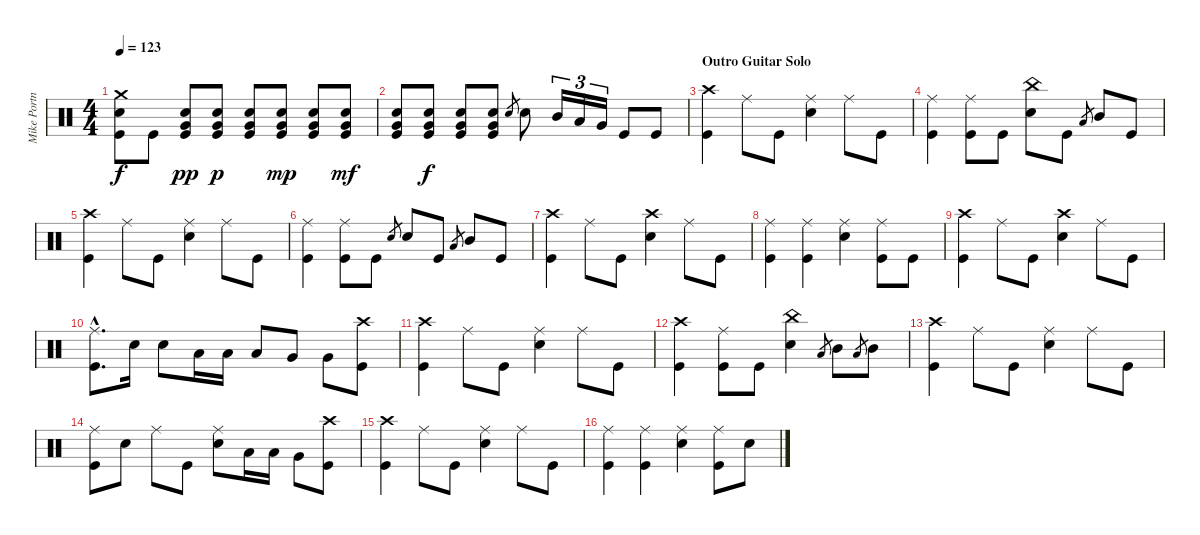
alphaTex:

\track ("Mike Portnoy" "Mike Portn") {instrument percussion}
\staff {score}
\articulation defaults
\ts (4 4)
\tempo 123
\clef neutral
\ks c
("Crash medium (hit)" "Electric Snare (hit)" "Kick (hit)").8{dy f} "Kick (hit)".8 ("Very Low Tom (hit)" "Electric Snare (hit)" "Kick (hit)").8{dy pp} ("Very Low Tom (hit)" "Electric Snare (hit)" "Kick (hit)").8{dy p} ("Very Low Tom (hit)" "Electric Snare (hit)" "Kick (hit)").8 ("Very Low Tom (hit)" "Electric Snare (hit)" "Kick (hit)").8{dy mp} ("Very Low Tom (hit)" "Electric Snare (hit)" "Kick (hit)").8 ("Very Low Tom (hit)" "Electric Snare (hit)" "Kick (hit)").8{dy mf} |
("Very Low Tom (hit)" "Electric Snare (hit)" "Kick (hit)").8 ("Very Low Tom (hit)" "Electric Snare (hit)" "Kick (hit)").8{dy f} ("Very Low Tom (hit)" "Electric Snare (hit)" "Kick (hit)").8 ("Very Low Tom (hit)" "Electric Snare (hit)" "Kick (hit)").8 "Electric Snare (hit)".8{gr} "Electric Snare (hit)".8 "Mid Tom (hit)".16{tu (3 2)} "Low Tom (hit)".16{tu (3 2)} "Very Low Tom (hit)".16{tu (3 2)} "Kick (hit)".8 "Kick (hit)".8 |
\section ("" "Outro Guitar Solo")
("Crash high (hit)" "Kick (hit)").4 "Ride (middle)".8 "Kick (hit)".8 ("Ride (middle)" "Electric Snare (hit)").4 "Ride (middle)".8 "Kick (hit)".8 |
("Ride (middle)" "Kick (hit)").4 ("Ride (middle)" "Kick (hit)").8 "Kick (hit)".8 ("China (hit)" "Electric Snare (hit)").8 "Kick (hit)".8 "Low Tom (hit)".8{gr} "Mid Tom (hit)".8 "Kick (hit)".8 |
("Crash high (hit)" "Kick (hit)").4 "Ride (middle)".8 "Kick (hit)".8 ("Ride (middle)" "Electric Snare (hit)").4 "Ride (middle)".8 "Kick (hit)".8 |
("Ride (middle)" "Kick (hit)").4 ("Ride (middle)" "Kick (hit)").8 "Kick (hit)".8 "Electric Snare (hit)".8{gr} "Electric Snare (hit)".8 "Kick (hit)".8 "Low Tom (hit)".8{gr} "Mid Tom (hit)".8 "Kick (hit)".8 |
("Crash high (hit)" "Kick (hit)").4 "Ride (middle)".8 "Kick (hit)".8 ("Crash high (hit)" "Electric Snare (hit)").4 "Ride (middle)".8 "Kick (hit)".8 |
("Ride (middle)" "Kick (hit)").4 ("Ride (middle)" "Kick (hit)").4 ("Ride (middle)" "Electric Snare (hit)").4 ("Ride (middle)" "Kick (hit)").8 "Kick (hit)".8 |
("Crash high (hit)" "Kick (hit)").4 "Ride (middle)".8 "Kick (hit)".8 ("Crash high (hit)" "Electric Snare (hit)").4 "Ride (middle)".8 "Kick (hit)".8 |
("Ride (middle)"{hac} "Kick (hit)"{hac}).8{d} "Electric Snare (hit)".16 "Electric Snare (hit)".8 "Low Tom (hit)".16 "Low Tom (hit)".16 "Low Tom (hit)".8 "Very Low Tom (hit)".8 "Very Low Tom (hit)".8 ("Crash high (hit)" "Kick (hit)").8 |
("Crash high (hit)" "Kick (hit)").4 "Ride (middle)".8 "Kick (hit)".8 ("Ride (middle)" "Electric Snare (hit)").4 "Ride (middle)".8 "Kick (hit)".8 |
("Crash high (hit)" "Kick (hit)").4 ("Ride (middle)" "Kick (hit)").8 "Kick (hit)".8 ("China (hit)" "Electric Snare (hit)").4 "Low Tom (hit)".8{gr} "Mid Tom (hit)".8 "Low Tom (hit)".8{gr} "Mid Tom (hit)".8 |
("Crash high (hit)" "Kick (hit)").4 "Ride (middle)".8 "Kick (hit)".8 ("Ride (middle)" "Electric Snare (hit)").4 "Ride (middle)".8 "Kick (hit)".8 |
("Ride (middle)" "Kick (hit)").8 "Electric Snare (hit)".8 "Ride (middle)".8 "Kick (hit)".8 ("Ride (middle)" "Electric Snare (hit)").8 "Low Tom (hit)".16 "Low Tom (hit)".16 "Very Low Tom (hit)".8 ("Crash high (hit)" "Kick (hit)").8 |
("Crash high (hit)" "Kick (hit)").4 "Ride (middle)".8 "Kick (hit)".8 ("Ride (middle)" "Electric Snare (hit)").4 "Ride (middle)".8 "Kick (hit)".8 |
("Ride (middle)" "Kick (hit)").4 ("Ride (middle)" "Kick (hit)").4 ("Ride (middle)" "Electric Snare (hit)").4 ("Ride (middle)" "Kick (hit)").8 "Electric Snare (hit)".8
